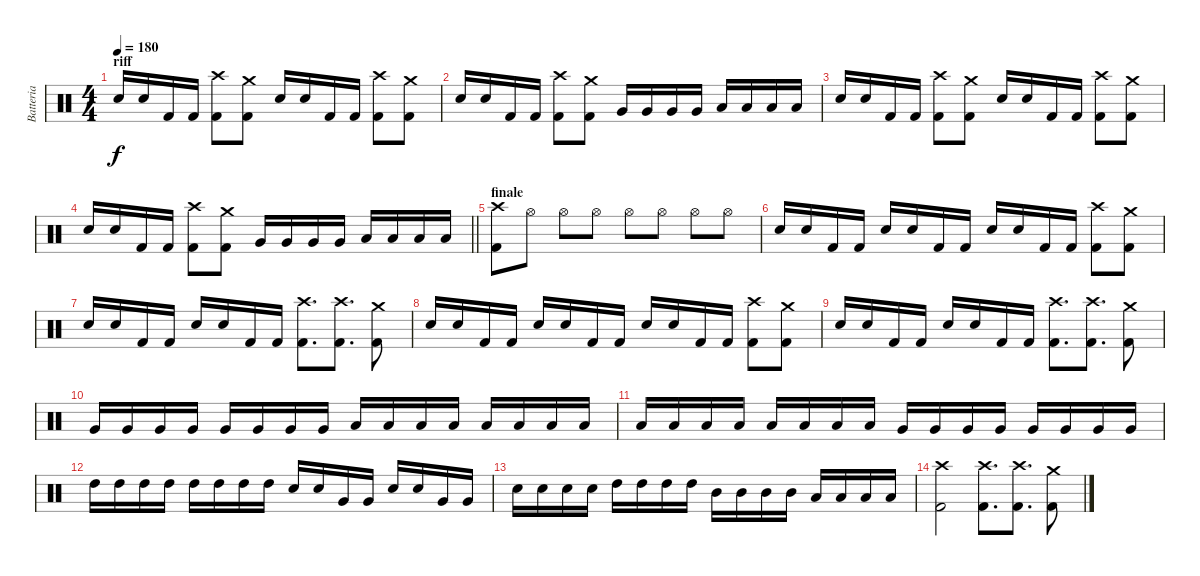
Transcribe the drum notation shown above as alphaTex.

\track ("Batteria" "Batteria") {instrument percussion}
\staff {score}
\articulation defaults
\ts (4 4)
\section ("" "riff")
\tempo 180
\clef neutral
\ks c "Snare (hit) 2".16{dy f} "Snare (hit) 2".16 "Kick (hit) 2".16 "Kick (hit) 2".16
("Crash high (hit)" "Kick (hit) 2").8 ("Crash medium (hit)" "Kick (hit) 2").8 "Snare (hit) 2".16 "Snare (hit) 2".16 "Kick (hit) 2".16 "Kick (hit) 2".16 ("Crash high (hit)" "Kick (hit) 2").8 ("Crash medium (hit)" "Kick (hit) 2").8 |
"Snare (hit) 2".16 "Snare (hit) 2".16 "Kick (hit) 2".16 "Kick (hit) 2".16 ("Crash high (hit)" "Kick (hit) 2").8 ("Crash medium (hit)" "Kick (hit) 2").8 "Very Low Tom (hit)".16 "Very Low Tom (hit)".16 "Very Low Tom (hit)".16 "Very Low Tom (hit)".16 "Low Floor Tom (hit)".16 "Low Floor Tom (hit)".16 "Low Floor Tom (hit)".16 "Low Floor Tom (hit)".16 |
"Snare (hit) 2".16 "Snare (hit) 2".16 "Kick (hit) 2".16 "Kick (hit) 2".16 ("Crash high (hit)" "Kick (hit) 2").8 ("Crash medium (hit)" "Kick (hit) 2").8 "Snare (hit) 2".16 "Snare (hit) 2".16 "Kick (hit) 2".16 "Kick (hit) 2".16 ("Crash high (hit)" "Kick (hit) 2").8 ("Crash medium (hit)" "Kick (hit) 2").8 |
\barLineRight lightlight "Snare (hit) 2".16 "Snare (hit) 2".16 "Kick (hit) 2".16 "Kick (hit) 2".16
("Crash high (hit)" "Kick (hit) 2").8 ("Crash medium (hit)" "Kick (hit) 2").8 "Very Low Tom (hit)".16 "Very Low Tom (hit)".16 "Very Low Tom (hit)".16 "Very Low Tom (hit)".16 "Low Floor Tom (hit)".16 "Low Floor Tom (hit)".16 "Low Floor Tom (hit)".16 "Low Floor Tom (hit)".16 |
\section ("" "finale")
("Crash high (hit)" "Kick (hit) 2").8 "Hi-Hat (open)".8 "Hi-Hat (open)".8 "Hi-Hat (open)".8 "Hi-Hat (open)".8 "Hi-Hat (open)".8 "Hi-Hat (open)".8 "Hi-Hat (open)".8 |
"Snare (hit) 2".16 "Snare (hit) 2".16 "Kick (hit) 2".16 "Kick (hit) 2".16 "Snare (hit) 2".16 "Snare (hit) 2".16 "Kick (hit) 2".16 "Kick (hit) 2".16 "Snare (hit) 2".16 "Snare (hit) 2".16 "Kick (hit) 2".16 "Kick (hit) 2".16 ("Crash high (hit)" "Kick (hit) 2").8 ("Crash medium (hit)" "Kick (hit) 2").8 |
"Snare (hit) 2".16 "Snare (hit) 2".16 "Kick (hit) 2".16 "Kick (hit) 2".16 "Snare (hit) 2".16 "Snare (hit) 2".16 "Kick (hit) 2".16 "Kick (hit) 2".16 ("Crash high (hit)" "Kick (hit) 2").8{d} ("Crash high (hit)" "Kick (hit) 2").8{d} ("Crash medium (hit)" "Kick (hit) 2").8 |
"Snare (hit) 2".16 "Snare (hit) 2".16 "Kick (hit) 2".16 "Kick (hit) 2".16 "Snare (hit) 2".16 "Snare (hit) 2".16 "Kick (hit) 2".16 "Kick (hit) 2".16 "Snare (hit) 2".16 "Snare (hit) 2".16 "Kick (hit) 2".16 "Kick (hit) 2".16 ("Crash high (hit)" "Kick (hit) 2").8 ("Crash medium (hit)" "Kick (hit) 2").8 |
"Snare (hit) 2".16 "Snare (hit) 2".16 "Kick (hit) 2".16 "Kick (hit) 2".16 "Snare (hit) 2".16 "Snare (hit) 2".16 "Kick (hit) 2".16 "Kick (hit) 2".16 ("Crash high (hit)" "Kick (hit) 2").8{d} ("Crash high (hit)" "Kick (hit) 2").8{d} ("Crash medium (hit)" "Kick (hit) 2").8 |
"Very Low Tom (hit)".16 "Very Low Tom (hit)".16 "Very Low Tom (hit)".16 "Very Low Tom (hit)".16 "Very Low Tom (hit)".16 "Very Low Tom (hit)".16 "Very Low Tom (hit)".16 "Very Low Tom (hit)".16 "Low Floor Tom (hit)".16 "Low Floor Tom (hit)".16 "Low Floor Tom (hit)".16 "Low Floor Tom (hit)".16 "Low Floor Tom (hit)".16 "Low Floor Tom (hit)".16 "Low Floor Tom (hit)".16 "Low Floor Tom (hit)".16 |
"Low Tom (hit)".16 "Low Tom (hit)".16 "Low Tom (hit)".16 "Low Tom (hit)".16 "Low Tom (hit)".16 "Low Tom (hit)".16 "Low Tom (hit)".16 "Low Tom (hit)".16 "Very Low Tom (hit)".16 "Very Low Tom (hit)".16 "Very Low Tom (hit)".16 "Very Low Tom (hit)".16 "Very Low Tom (hit)".16 "Very Low Tom (hit)".16 "Very Low Tom (hit)".16 "Very Low Tom (hit)".16 |
"High Tom (hit)".16 "High Tom (hit)".16 "High Tom (hit)".16 "High Tom (hit)".16 "High Tom (hit)".16 "High Tom (hit)".16 "High Tom (hit)".16 "High Tom (hit)".16 "Snare (hit) 2".16 "Snare (hit) 2".16 "Very Low Tom (hit)".16 "Very Low Tom (hit)".16 "Snare (hit) 2".16 "Snare (hit) 2".16 "Very Low Tom (hit)".16 "Very Low Tom (hit)".16 |
"Snare (hit) 2".16 "Snare (hit) 2".16 "Snare (hit) 2".16 "Snare (hit) 2".16 "High Tom (hit)".16 "High Tom (hit)".16 "High Tom (hit)".16 "High Tom (hit)".16 "Mid Tom (hit)".16 "Mid Tom (hit)".16 "Mid Tom (hit)".16 "Mid Tom (hit)".16 "Low Tom (hit)".16 "Low Tom (hit)".16 "Low Tom (hit)".16 "Low Tom (hit)".16 |
("Crash high (hit)" "Kick (hit) 2").2 ("Crash high (hit)" "Kick (hit) 2").8{d} ("Crash high (hit)" "Kick (hit) 2").8{d} ("Crash medium (hit)" "Kick (hit) 2").8
